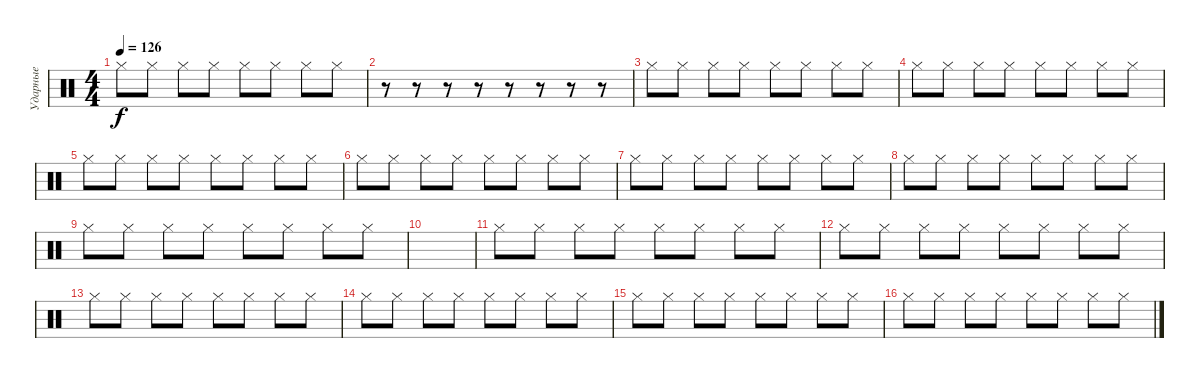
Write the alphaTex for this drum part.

\track ("Ударные" "Ударные") {instrument percussion}
\staff {score}
\articulation defaults
\ts (4 4)
\tempo 126
\clef neutral
\ks c "Hi-Hat (closed)".8{dy f} "Hi-Hat (closed)".8 "Hi-Hat (closed)".8 "Hi-Hat (closed)".8 "Hi-Hat (closed)".8 "Hi-Hat (closed)".8 "Hi-Hat (closed)".8 "Hi-Hat (closed)".8
|
r.8 r.8 r.8 r.8 r.8 r.8 r.8 r.8 |
"Hi-Hat (closed)".8 "Hi-Hat (closed)".8 "Hi-Hat (closed)".8 "Hi-Hat (closed)".8 "Hi-Hat (closed)".8 "Hi-Hat (closed)".8 "Hi-Hat (closed)".8 "Hi-Hat (closed)".8 |
"Hi-Hat (closed)".8 "Hi-Hat (closed)".8 "Hi-Hat (closed)".8 "Hi-Hat (closed)".8 "Hi-Hat (closed)".8 "Hi-Hat (closed)".8 "Hi-Hat (closed)".8 "Hi-Hat (closed)".8 |
"Hi-Hat (closed)".8 "Hi-Hat (closed)".8 "Hi-Hat (closed)".8 "Hi-Hat (closed)".8 "Hi-Hat (closed)".8 "Hi-Hat (closed)".8 "Hi-Hat (closed)".8 "Hi-Hat (closed)".8 |
"Hi-Hat (closed)".8 "Hi-Hat (closed)".8 "Hi-Hat (closed)".8 "Hi-Hat (closed)".8 "Hi-Hat (closed)".8 "Hi-Hat (closed)".8 "Hi-Hat (closed)".8 "Hi-Hat (closed)".8 |
"Hi-Hat (closed)".8 "Hi-Hat (closed)".8 "Hi-Hat (closed)".8 "Hi-Hat (closed)".8 "Hi-Hat (closed)".8 "Hi-Hat (closed)".8 "Hi-Hat (closed)".8 "Hi-Hat (closed)".8 |
"Hi-Hat (closed)".8 "Hi-Hat (closed)".8 "Hi-Hat (closed)".8 "Hi-Hat (closed)".8 "Hi-Hat (closed)".8 "Hi-Hat (closed)".8 "Hi-Hat (closed)".8 "Hi-Hat (closed)".8 |
"Hi-Hat (closed)".8 "Hi-Hat (closed)".8 "Hi-Hat (closed)".8 "Hi-Hat (closed)".8 "Hi-Hat (closed)".8 "Hi-Hat (closed)".8 "Hi-Hat (closed)".8 "Hi-Hat (closed)".8 |
|
"Hi-Hat (closed)".8 "Hi-Hat (closed)".8 "Hi-Hat (closed)".8 "Hi-Hat (closed)".8 "Hi-Hat (closed)".8 "Hi-Hat (closed)".8 "Hi-Hat (closed)".8 "Hi-Hat (closed)".8 |
"Hi-Hat (closed)".8 "Hi-Hat (closed)".8 "Hi-Hat (closed)".8 "Hi-Hat (closed)".8 "Hi-Hat (closed)".8 "Hi-Hat (closed)".8 "Hi-Hat (closed)".8 "Hi-Hat (closed)".8 |
"Hi-Hat (closed)".8 "Hi-Hat (closed)".8 "Hi-Hat (closed)".8 "Hi-Hat (closed)".8 "Hi-Hat (closed)".8 "Hi-Hat (closed)".8 "Hi-Hat (closed)".8 "Hi-Hat (closed)".8 |
"Hi-Hat (closed)".8 "Hi-Hat (closed)".8 "Hi-Hat (closed)".8 "Hi-Hat (closed)".8 "Hi-Hat (closed)".8 "Hi-Hat (closed)".8 "Hi-Hat (closed)".8 "Hi-Hat (closed)".8 |
"Hi-Hat (closed)".8 "Hi-Hat (closed)".8 "Hi-Hat (closed)".8 "Hi-Hat (closed)".8 "Hi-Hat (closed)".8 "Hi-Hat (closed)".8 "Hi-Hat (closed)".8 "Hi-Hat (closed)".8 |
"Hi-Hat (closed)".8 "Hi-Hat (closed)".8 "Hi-Hat (closed)".8 "Hi-Hat (closed)".8 "Hi-Hat (closed)".8 "Hi-Hat (closed)".8 "Hi-Hat (closed)".8 "Hi-Hat (closed)".8
